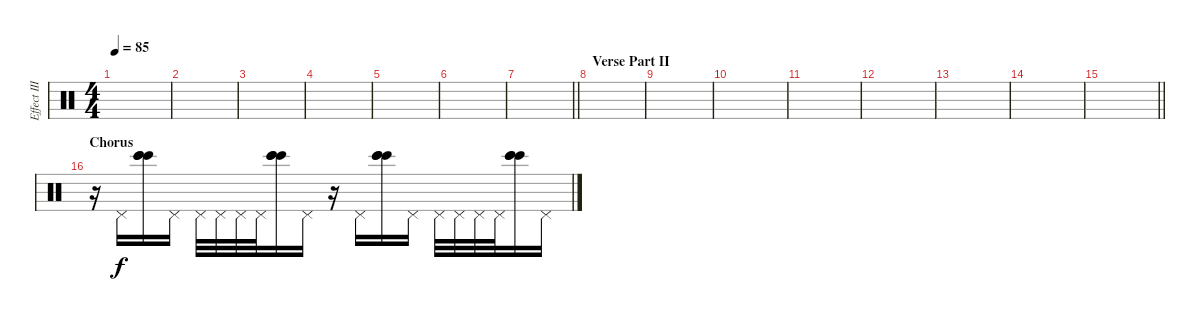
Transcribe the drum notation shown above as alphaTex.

\track ("Effect III" "Effect III") {instrument percussion}
\staff {score}
\articulation defaults
\ts (4 4)
\tempo 85
\clef neutral
\ks c
|
|
|
|
|
|
\barLineRight lightlight
|
\section ("" "Verse Part II")
|
|
|
|
|
|
|
\barLineRight lightlight
|
\section ("" "Chorus")
r.16 "Pedal Hi-Hat (hit)".16 ("Bongo High (hit)" "Bongo High (hit)" "Bongo High (hit)").16 "Pedal Hi-Hat (hit)".16 "Pedal Hi-Hat (hit)".32 "Pedal Hi-Hat (hit)".32 "Pedal Hi-Hat (hit)".32 "Pedal Hi-Hat (hit)".32 ("Bongo High (hit)" "Bongo High (hit)" "Bongo High (hit)").16 "Pedal Hi-Hat (hit)".16 r.16 "Pedal Hi-Hat (hit)".16 ("Bongo High (hit)" "Bongo High (hit)" "Bongo High (hit)").16 "Pedal Hi-Hat (hit)".16 "Pedal Hi-Hat (hit)".32 "Pedal Hi-Hat (hit)".32 "Pedal Hi-Hat (hit)".32 "Pedal Hi-Hat (hit)".32 ("Bongo High (hit)" "Bongo High (hit)" "Bongo High (hit)").16 "Pedal Hi-Hat (hit)".16
